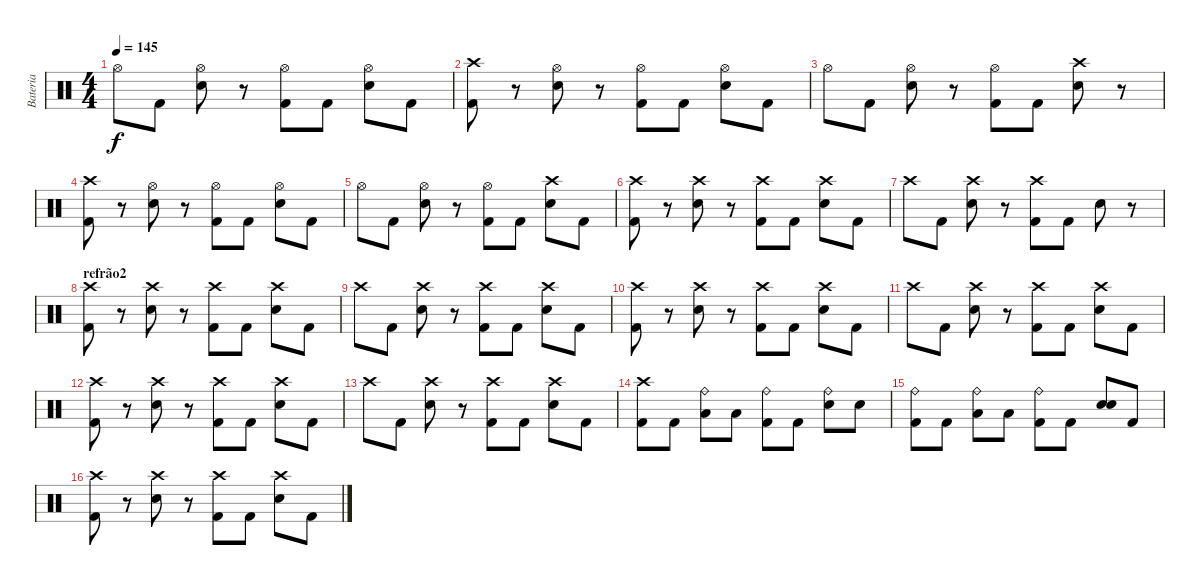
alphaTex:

\track ("Bateria" "Bateria") {instrument percussion}
\staff {score}
\articulation defaults
\ts (4 4)
\tempo 145
\clef neutral
\ks c "Hi-Hat (open)".8{dy f} "Kick (hit) 2".8
("Hi-Hat (open)" "Electric Snare (hit)").8 r.8 ("Hi-Hat (open)" "Kick (hit) 2").8 "Kick (hit) 2".8 ("Hi-Hat (open)" "Electric Snare (hit)").8 "Kick (hit) 2".8 |
("Crash high (hit)" "Kick (hit) 2").8 r.8 ("Hi-Hat (open)" "Electric Snare (hit)").8 r.8 ("Hi-Hat (open)" "Kick (hit) 2").8 "Kick (hit) 2".8 ("Hi-Hat (open)" "Electric Snare (hit)").8 "Kick (hit) 2".8 |
"Hi-Hat (open)".8 "Kick (hit) 2".8 ("Hi-Hat (open)" "Electric Snare (hit)").8 r.8 ("Hi-Hat (open)" "Kick (hit) 2").8 "Kick (hit) 2".8 ("Crash high (hit)" "Electric Snare (hit)").8 r.8 |
("Crash high (hit)" "Kick (hit) 2").8 r.8 ("Hi-Hat (open)" "Electric Snare (hit)").8 r.8 ("Hi-Hat (open)" "Kick (hit) 2").8 "Kick (hit) 2".8 ("Hi-Hat (open)" "Electric Snare (hit)").8 "Kick (hit) 2".8 |
"Hi-Hat (open)".8 "Kick (hit) 2".8 ("Hi-Hat (open)" "Electric Snare (hit)").8 r.8 ("Hi-Hat (open)" "Kick (hit) 2").8 "Kick (hit) 2".8 ("Crash high (hit)" "Electric Snare (hit)").8 "Kick (hit) 2".8 |
("Crash high (hit)" "Kick (hit) 2").8 r.8 ("Crash high (hit)" "Electric Snare (hit)").8 r.8 ("Crash high (hit)" "Kick (hit) 2").8 "Kick (hit) 2".8 ("Crash high (hit)" "Electric Snare (hit)").8 "Kick (hit) 2".8 |
"Crash high (hit)".8 "Kick (hit) 2".8 ("Crash high (hit)" "Electric Snare (hit)").8 r.8 ("Crash high (hit)" "Kick (hit) 2").8 "Kick (hit) 2".8 "Electric Snare (hit)".8 r.8 |
\section ("" "refrão2")
("Crash high (hit)" "Kick (hit) 2").8 r.8 ("Crash high (hit)" "Electric Snare (hit)").8 r.8 ("Crash high (hit)" "Kick (hit) 2").8 "Kick (hit) 2".8 ("Crash high (hit)" "Electric Snare (hit)").8 "Kick (hit) 2".8 |
"Crash high (hit)".8 "Kick (hit) 2".8 ("Crash high (hit)" "Electric Snare (hit)").8 r.8 ("Crash high (hit)" "Kick (hit) 2").8 "Kick (hit) 2".8 ("Crash high (hit)" "Electric Snare (hit)").8 "Kick (hit) 2".8 |
("Crash high (hit)" "Kick (hit) 2").8 r.8 ("Crash high (hit)" "Electric Snare (hit)").8 r.8 ("Crash high (hit)" "Kick (hit) 2").8 "Kick (hit) 2".8 ("Crash high (hit)" "Electric Snare (hit)").8 "Kick (hit) 2".8 |
"Crash high (hit)".8 "Kick (hit) 2".8 ("Crash high (hit)" "Electric Snare (hit)").8 r.8 ("Crash high (hit)" "Kick (hit) 2").8 "Kick (hit) 2".8 ("Crash high (hit)" "Electric Snare (hit)").8 "Kick (hit) 2".8 |
("Crash high (hit)" "Kick (hit) 2").8 r.8 ("Crash high (hit)" "Electric Snare (hit)").8 r.8 ("Crash high (hit)" "Kick (hit) 2").8 "Kick (hit) 2".8 ("Crash high (hit)" "Electric Snare (hit)").8 "Kick (hit) 2".8 |
"Crash high (hit)".8 "Kick (hit) 2".8 ("Crash high (hit)" "Electric Snare (hit)").8 r.8 ("Crash high (hit)" "Kick (hit) 2").8 "Kick (hit) 2".8 ("Crash high (hit)" "Electric Snare (hit)").8 "Kick (hit) 2".8 |
("Crash high (hit)" "Kick (hit) 2").8 "Kick (hit) 2".8 ("Ride (bell)" "Low Tom (hit)").8 "Low Tom (hit)".8 ("Ride (bell)" "Kick (hit) 2").8 "Kick (hit) 2".8 ("Ride (bell)" "Electric Snare (hit)").8 "Electric Snare (hit)".8 |
("Ride (bell)" "Kick (hit) 2").8 "Kick (hit) 2".8 ("Ride (bell)" "Low Tom (hit)").8 "Low Tom (hit)".8 ("Ride (bell)" "Kick (hit) 2").8 "Kick (hit) 2".8 ("Electric Snare (hit)" "Electric Snare (hit)").8 "Kick (hit) 2".8 |
("Crash high (hit)" "Kick (hit) 2").8 r.8 ("Crash high (hit)" "Electric Snare (hit)").8 r.8 ("Crash high (hit)" "Kick (hit) 2").8 "Kick (hit) 2".8 ("Crash high (hit)" "Electric Snare (hit)").8 "Kick (hit) 2".8
